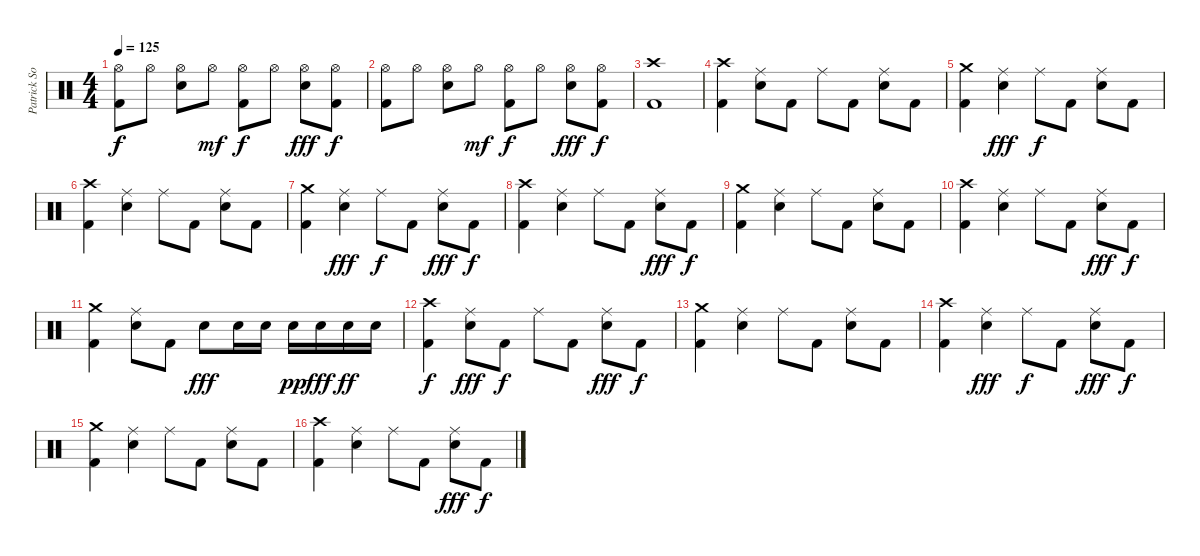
\track ("Patrick Soria" "Patrick So") {instrument percussion}
\staff {score}
\articulation defaults
\ts (4 4)
\tempo 125
\clef neutral
\ks c
("Hi-Hat (open)" "Kick (hit) 2").8{dy f} "Hi-Hat (open)".8 ("Hi-Hat (open)" "Snare (hit) 2").8 "Hi-Hat (open)".8{dy mf} ("Hi-Hat (open)" "Kick (hit) 2").8{dy f} "Hi-Hat (open)".8 ("Hi-Hat (open)" "Snare (hit) 2").8{dy fff} ("Hi-Hat (open)" "Kick (hit) 2").8{dy f} |
("Hi-Hat (open)" "Kick (hit) 2").8 "Hi-Hat (open)".8 ("Hi-Hat (open)" "Snare (hit) 2").8 "Hi-Hat (open)".8{dy mf} ("Hi-Hat (open)" "Kick (hit) 2").8{dy f} "Hi-Hat (open)".8 ("Hi-Hat (open)" "Snare (hit) 2").8{dy fff} ("Hi-Hat (open)" "Kick (hit) 2").8{dy f} |
("Kick (hit) 2" "Crash high (hit)").1 |
("Crash high (hit)" "Kick (hit) 2").4 ("Ride (middle)" "Snare (hit) 2").8 "Kick (hit) 2".8 "Ride (middle)".8 "Kick (hit) 2".8 ("Ride (middle)" "Snare (hit) 2").8 "Kick (hit) 2".8 |
("Crash medium (hit)" "Kick (hit) 2").4 ("Ride (middle)" "Snare (hit) 2").4{dy fff} "Ride (middle)".8{dy f} "Kick (hit) 2".8 ("Ride (middle)" "Snare (hit) 2").8 "Kick (hit) 2".8 |
("Crash high (hit)" "Kick (hit) 2").4 ("Ride (middle)" "Snare (hit) 2").4 "Ride (middle)".8 "Kick (hit) 2".8 ("Ride (middle)" "Snare (hit) 2").8 "Kick (hit) 2".8 |
("Crash medium (hit)" "Kick (hit) 2").4 ("Ride (middle)" "Snare (hit) 2").4{dy fff} "Ride (middle)".8{dy f} "Kick (hit) 2".8 ("Ride (middle)" "Snare (hit) 2").8{dy fff} "Kick (hit) 2".8{dy f} |
("Crash high (hit)" "Kick (hit) 2").4 ("Ride (middle)" "Snare (hit) 2").4 "Ride (middle)".8 "Kick (hit) 2".8 ("Ride (middle)" "Snare (hit) 2").8{dy fff} "Kick (hit) 2".8{dy f} |
("Crash medium (hit)" "Kick (hit) 2").4 ("Ride (middle)" "Snare (hit) 2").4 "Ride (middle)".8 "Kick (hit) 2".8 ("Ride (middle)" "Snare (hit) 2").8 "Kick (hit) 2".8 |
("Crash high (hit)" "Kick (hit) 2").4 ("Ride (middle)" "Snare (hit) 2").4 "Ride (middle)".8 "Kick (hit) 2".8 ("Ride (middle)" "Snare (hit) 2").8{dy fff} "Kick (hit) 2".8{dy f} |
("Crash medium (hit)" "Kick (hit) 2").4 ("Ride (middle)" "Snare (hit) 2").8 "Kick (hit) 2".8 "Snare (hit) 2".8{dy fff} "Snare (hit) 2".16 "Snare (hit) 2".16 "Snare (hit) 2".16{dy pp} "Snare (hit) 2".16{dy fff} "Snare (hit) 2".16{dy ff} "Snare (hit) 2".16 |
("Crash high (hit)" "Kick (hit) 2").4{dy f} ("Ride (middle)" "Snare (hit) 2").8{dy fff} "Kick (hit) 2".8{dy f} "Ride (middle)".8 "Kick (hit) 2".8 ("Ride (middle)" "Snare (hit) 2").8{dy fff} "Kick (hit) 2".8{dy f} |
("Crash medium (hit)" "Kick (hit) 2").4 ("Ride (middle)" "Snare (hit) 2").4 "Ride (middle)".8 "Kick (hit) 2".8 ("Ride (middle)" "Snare (hit) 2").8 "Kick (hit) 2".8 |
("Crash high (hit)" "Kick (hit) 2").4 ("Ride (middle)" "Snare (hit) 2").4{dy fff} "Ride (middle)".8{dy f} "Kick (hit) 2".8 ("Ride (middle)" "Snare (hit) 2").8{dy fff} "Kick (hit) 2".8{dy f} |
("Crash medium (hit)" "Kick (hit) 2").4 ("Ride (middle)" "Snare (hit) 2").4 "Ride (middle)".8 "Kick (hit) 2".8 ("Ride (middle)" "Snare (hit) 2").8 "Kick (hit) 2".8 |
("Crash high (hit)" "Kick (hit) 2").4 ("Ride (middle)" "Snare (hit) 2").4 "Ride (middle)".8 "Kick (hit) 2".8 ("Ride (middle)" "Snare (hit) 2").8{dy fff} "Kick (hit) 2".8{dy f}
